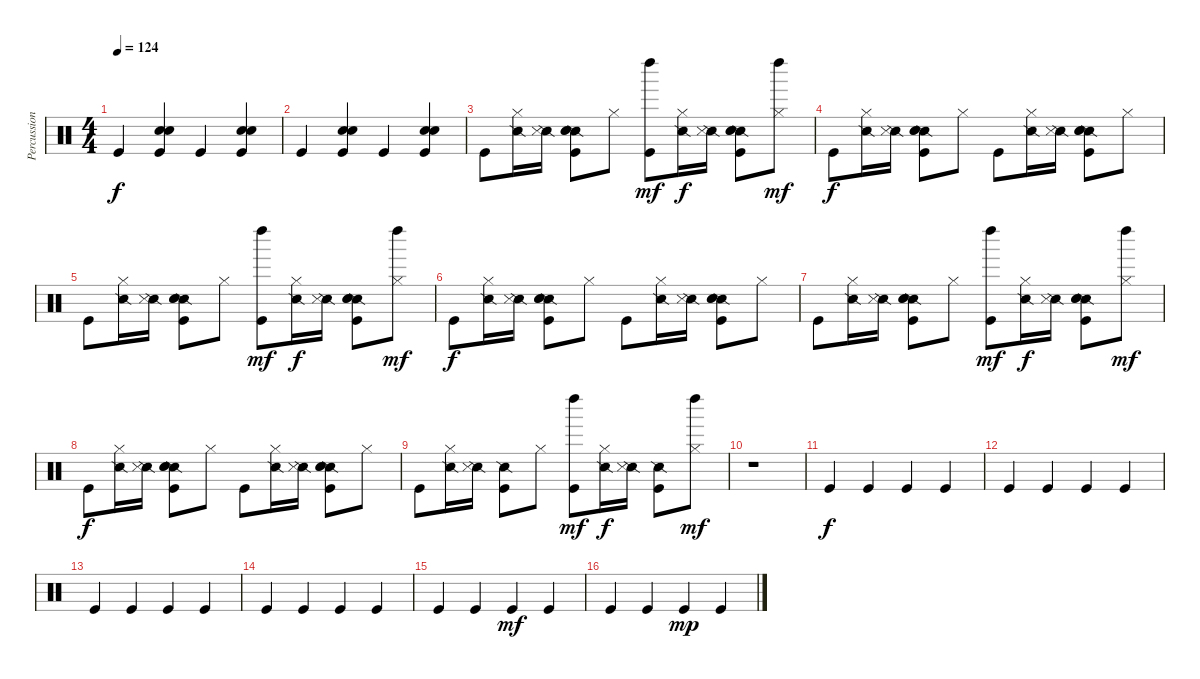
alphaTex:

\track ("Percussion" "Percussion") {instrument percussion}
\staff {score}
\articulation defaults
\ts (4 4)
\tempo 124
\clef neutral
\ks c "Kick (hit)".4{dy f}
("Snare (hit) 2" "Hand Clap (hit)" "Kick (hit)").4 "Kick (hit)".4 ("Snare (hit) 2" "Hand Clap (hit)" "Kick (hit)").4 |
"Kick (hit)".4 ("Snare (hit) 2" "Hand Clap (hit)" "Kick (hit)").4 "Kick (hit)".4 ("Snare (hit) 2" "Hand Clap (hit)" "Kick (hit)").4 |
"Kick (hit)".8 ("Snare (side stick) 2" "Hi-Hat (closed)").16 ("Snare (side stick) 2" "Snare (side stick) 3").16 ("Snare (side stick) 2" "Snare (hit) 2" "Hand Clap (hit)" "Kick (hit)").8 "Hi-Hat (closed)".8 ("Left Maraca (hit)" "Kick (hit)").8{dy mf} ("Snare (side stick) 2" "Hi-Hat (closed)").16{dy f} ("Snare (side stick) 2" "Snare (side stick) 3").16 ("Snare (side stick) 2" "Snare (hit) 2" "Hand Clap (hit)" "Kick (hit)").8 ("Left Maraca (hit)" "Hi-Hat (closed)").8{dy mf} |
"Kick (hit)".8{dy f} ("Snare (side stick) 2" "Hi-Hat (closed)").16 ("Snare (side stick) 2" "Snare (side stick) 3").16 ("Snare (side stick) 2" "Snare (hit) 2" "Hand Clap (hit)" "Kick (hit)").8 "Hi-Hat (closed)".8 "Kick (hit)".8 ("Snare (side stick) 2" "Hi-Hat (closed)").16 ("Snare (side stick) 2" "Snare (side stick) 3").16 ("Snare (side stick) 2" "Snare (hit) 2" "Hand Clap (hit)" "Kick (hit)").8 "Hi-Hat (closed)".8 |
"Kick (hit)".8 ("Snare (side stick) 2" "Hi-Hat (closed)").16 ("Snare (side stick) 2" "Snare (side stick) 3").16 ("Snare (side stick) 2" "Snare (hit) 2" "Hand Clap (hit)" "Kick (hit)").8 "Hi-Hat (closed)".8 ("Left Maraca (hit)" "Kick (hit)").8{dy mf} ("Snare (side stick) 2" "Hi-Hat (closed)").16{dy f} ("Snare (side stick) 2" "Snare (side stick) 3").16 ("Snare (side stick) 2" "Snare (hit) 2" "Hand Clap (hit)" "Kick (hit)").8 ("Left Maraca (hit)" "Hi-Hat (closed)").8{dy mf} |
"Kick (hit)".8{dy f} ("Snare (side stick) 2" "Hi-Hat (closed)").16 ("Snare (side stick) 2" "Snare (side stick) 3").16 ("Snare (side stick) 2" "Snare (hit) 2" "Hand Clap (hit)" "Kick (hit)").8 "Hi-Hat (closed)".8 "Kick (hit)".8 ("Snare (side stick) 2" "Hi-Hat (closed)").16 ("Snare (side stick) 2" "Snare (side stick) 3").16 ("Snare (side stick) 2" "Snare (hit) 2" "Hand Clap (hit)" "Kick (hit)").8 "Hi-Hat (closed)".8 |
"Kick (hit)".8 ("Snare (side stick) 2" "Hi-Hat (closed)").16 ("Snare (side stick) 2" "Snare (side stick) 3").16 ("Snare (side stick) 2" "Snare (hit) 2" "Hand Clap (hit)" "Kick (hit)").8 "Hi-Hat (closed)".8 ("Left Maraca (hit)" "Kick (hit)").8{dy mf} ("Snare (side stick) 2" "Hi-Hat (closed)").16{dy f} ("Snare (side stick) 2" "Snare (side stick) 3").16 ("Snare (side stick) 2" "Snare (hit) 2" "Hand Clap (hit)" "Kick (hit)").8 ("Left Maraca (hit)" "Hi-Hat (closed)").8{dy mf} |
"Kick (hit)".8{dy f} ("Snare (side stick) 2" "Hi-Hat (closed)").16 ("Snare (side stick) 2" "Snare (side stick) 3").16 ("Snare (side stick) 2" "Snare (hit) 2" "Hand Clap (hit)" "Kick (hit)").8 "Hi-Hat (closed)".8 "Kick (hit)".8 ("Snare (side stick) 2" "Hi-Hat (closed)").16 ("Snare (side stick) 2" "Snare (side stick) 3").16 ("Snare (side stick) 2" "Snare (hit) 2" "Hand Clap (hit)" "Kick (hit)").8 "Hi-Hat (closed)".8 |
"Kick (hit)".8 ("Snare (side stick) 2" "Hi-Hat (closed)").16 ("Snare (side stick) 2" "Snare (side stick) 3").16 ("Snare (side stick) 2" "Kick (hit)").8 "Hi-Hat (closed)".8 ("Left Maraca (hit)" "Kick (hit)").8{dy mf} ("Snare (side stick) 2" "Hi-Hat (closed)").16{dy f} ("Snare (side stick) 2" "Snare (side stick) 3").16 ("Snare (side stick) 2" "Kick (hit)").8 ("Left Maraca (hit)" "Hi-Hat (closed)").8{dy mf} |
r.1 |
"Kick (hit)".4{dy f} "Kick (hit)".4 "Kick (hit)".4 "Kick (hit)".4 |
"Kick (hit)".4 "Kick (hit)".4 "Kick (hit)".4 "Kick (hit)".4 |
"Kick (hit)".4 "Kick (hit)".4 "Kick (hit)".4 "Kick (hit)".4 |
"Kick (hit)".4 "Kick (hit)".4 "Kick (hit)".4 "Kick (hit)".4 |
"Kick (hit)".4 "Kick (hit)".4 "Kick (hit)".4{dy mf} "Kick (hit)".4 |
"Kick (hit)".4 "Kick (hit)".4 "Kick (hit)".4{dy mp} "Kick (hit)".4
